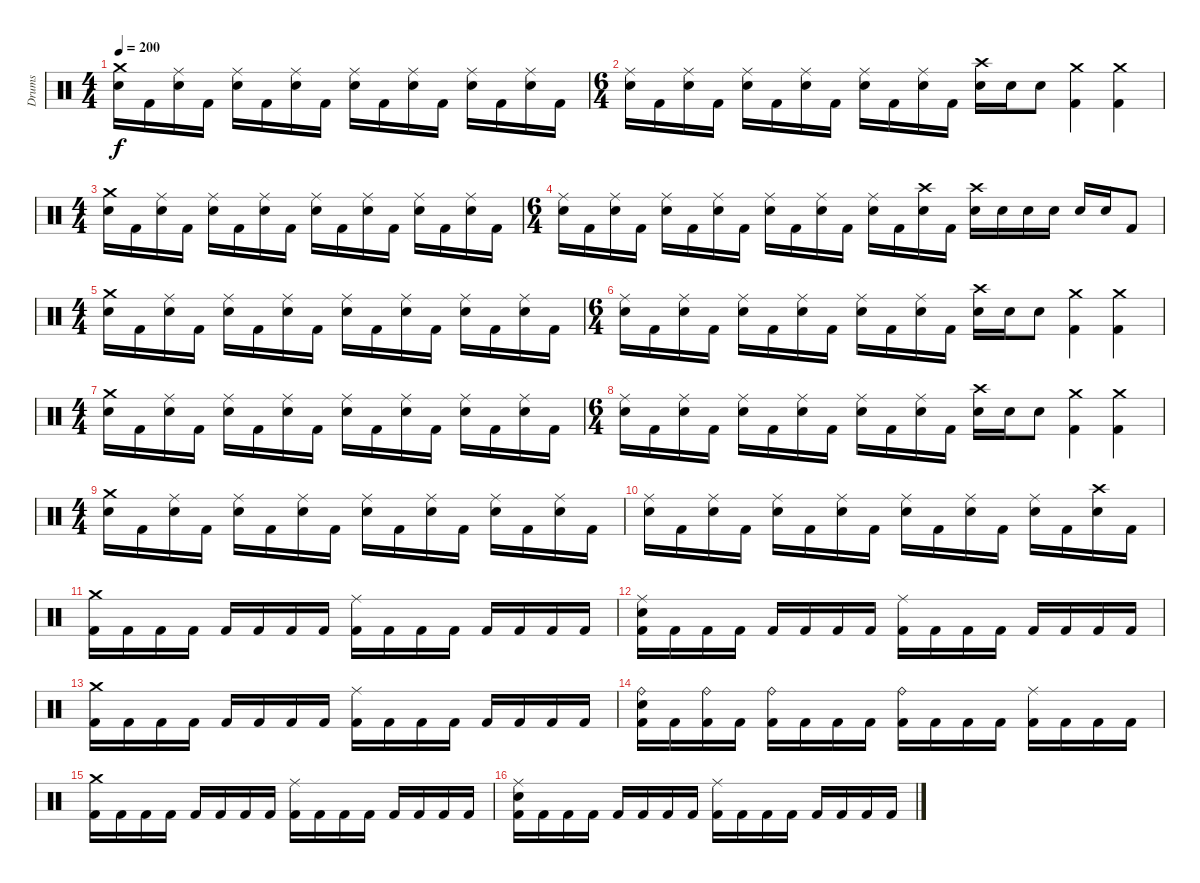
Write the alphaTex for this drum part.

\track ("Drums" "Drums") {instrument percussion}
\staff {score}
\articulation defaults
\ts (4 4)
\tempo 200
\clef neutral
\ks c
("Crash medium (hit)" "Electric Snare (hit)").16{dy f} "Kick (hit) 2".16 ("Ride (middle)" "Electric Snare (hit)").16 "Kick (hit) 2".16 ("Ride (middle)" "Electric Snare (hit)").16 "Kick (hit) 2".16 ("Ride (middle)" "Electric Snare (hit)").16 "Kick (hit) 2".16 ("Ride (middle)" "Electric Snare (hit)").16 "Kick (hit) 2".16 ("Ride (middle)" "Electric Snare (hit)").16 "Kick (hit) 2".16 ("Ride (middle)" "Electric Snare (hit)").16 "Kick (hit) 2".16 ("Ride (middle)" "Electric Snare (hit)").16 "Kick (hit) 2".16 |
\ts (6 4)
("Ride (middle)" "Electric Snare (hit)").16 "Kick (hit) 2".16 ("Ride (middle)" "Electric Snare (hit)").16 "Kick (hit) 2".16 ("Ride (middle)" "Electric Snare (hit)").16 "Kick (hit) 2".16 ("Ride (middle)" "Electric Snare (hit)").16 "Kick (hit) 2".16 ("Ride (middle)" "Electric Snare (hit)").16 "Kick (hit) 2".16 ("Ride (middle)" "Electric Snare (hit)").16 "Kick (hit) 2".16 ("Crash high (hit)" "Electric Snare (hit)").16 "Electric Snare (hit)".16 "Electric Snare (hit)".8 ("Crash medium (hit)" "Kick (hit) 2").4 ("Crash medium (hit)" "Kick (hit) 2").4 |
\ts (4 4)
("Crash medium (hit)" "Electric Snare (hit)").16 "Kick (hit) 2".16 ("Ride (middle)" "Electric Snare (hit)").16 "Kick (hit) 2".16 ("Ride (middle)" "Electric Snare (hit)").16 "Kick (hit) 2".16 ("Ride (middle)" "Electric Snare (hit)").16 "Kick (hit) 2".16 ("Ride (middle)" "Electric Snare (hit)").16 "Kick (hit) 2".16 ("Ride (middle)" "Electric Snare (hit)").16 "Kick (hit) 2".16 ("Ride (middle)" "Electric Snare (hit)").16 "Kick (hit) 2".16 ("Ride (middle)" "Electric Snare (hit)").16 "Kick (hit) 2".16 |
\ts (6 4)
("Ride (middle)" "Electric Snare (hit)").16 "Kick (hit) 2".16 ("Ride (middle)" "Electric Snare (hit)").16 "Kick (hit) 2".16 ("Ride (middle)" "Electric Snare (hit)").16 "Kick (hit) 2".16 ("Ride (middle)" "Electric Snare (hit)").16 "Kick (hit) 2".16 ("Ride (middle)" "Electric Snare (hit)").16 "Kick (hit) 2".16 ("Ride (middle)" "Electric Snare (hit)").16 "Kick (hit) 2".16 ("Ride (middle)" "Electric Snare (hit)").16 "Kick (hit) 2".16 ("Crash high (hit)" "Electric Snare (hit)").16 "Kick (hit) 2".16 ("Crash high (hit)" "Electric Snare (hit)").16 "Electric Snare (hit)".16 "Electric Snare (hit)".16 "Electric Snare (hit)".16 "Electric Snare (hit)".16 "Electric Snare (hit)".16 "Kick (hit) 2".8 |
\ts (4 4)
("Crash medium (hit)" "Electric Snare (hit)").16 "Kick (hit) 2".16 ("Ride (middle)" "Electric Snare (hit)").16 "Kick (hit) 2".16 ("Ride (middle)" "Electric Snare (hit)").16 "Kick (hit) 2".16 ("Ride (middle)" "Electric Snare (hit)").16 "Kick (hit) 2".16 ("Ride (middle)" "Electric Snare (hit)").16 "Kick (hit) 2".16 ("Ride (middle)" "Electric Snare (hit)").16 "Kick (hit) 2".16 ("Ride (middle)" "Electric Snare (hit)").16 "Kick (hit) 2".16 ("Ride (middle)" "Electric Snare (hit)").16 "Kick (hit) 2".16 |
\ts (6 4)
("Ride (middle)" "Electric Snare (hit)").16 "Kick (hit) 2".16 ("Ride (middle)" "Electric Snare (hit)").16 "Kick (hit) 2".16 ("Ride (middle)" "Electric Snare (hit)").16 "Kick (hit) 2".16 ("Ride (middle)" "Electric Snare (hit)").16 "Kick (hit) 2".16 ("Ride (middle)" "Electric Snare (hit)").16 "Kick (hit) 2".16 ("Ride (middle)" "Electric Snare (hit)").16 "Kick (hit) 2".16 ("Crash high (hit)" "Electric Snare (hit)").16 "Electric Snare (hit)".16 "Electric Snare (hit)".8 ("Crash medium (hit)" "Kick (hit) 2").4 ("Crash medium (hit)" "Kick (hit) 2").4 |
\ts (4 4)
("Crash medium (hit)" "Electric Snare (hit)").16 "Kick (hit) 2".16 ("Ride (middle)" "Electric Snare (hit)").16 "Kick (hit) 2".16 ("Ride (middle)" "Electric Snare (hit)").16 "Kick (hit) 2".16 ("Ride (middle)" "Electric Snare (hit)").16 "Kick (hit) 2".16 ("Ride (middle)" "Electric Snare (hit)").16 "Kick (hit) 2".16 ("Ride (middle)" "Electric Snare (hit)").16 "Kick (hit) 2".16 ("Ride (middle)" "Electric Snare (hit)").16 "Kick (hit) 2".16 ("Ride (middle)" "Electric Snare (hit)").16 "Kick (hit) 2".16 |
\ts (6 4)
("Ride (middle)" "Electric Snare (hit)").16 "Kick (hit) 2".16 ("Ride (middle)" "Electric Snare (hit)").16 "Kick (hit) 2".16 ("Ride (middle)" "Electric Snare (hit)").16 "Kick (hit) 2".16 ("Ride (middle)" "Electric Snare (hit)").16 "Kick (hit) 2".16 ("Ride (middle)" "Electric Snare (hit)").16 "Kick (hit) 2".16 ("Ride (middle)" "Electric Snare (hit)").16 "Kick (hit) 2".16 ("Crash high (hit)" "Electric Snare (hit)").16 "Electric Snare (hit)".16 "Electric Snare (hit)".8 ("Crash medium (hit)" "Kick (hit) 2").4 ("Crash medium (hit)" "Kick (hit) 2").4 |
\ts (4 4)
("Crash medium (hit)" "Electric Snare (hit)").16 "Kick (hit) 2".16 ("Ride (middle)" "Electric Snare (hit)").16 "Kick (hit) 2".16 ("Ride (middle)" "Electric Snare (hit)").16 "Kick (hit) 2".16 ("Ride (middle)" "Electric Snare (hit)").16 "Kick (hit) 2".16 ("Ride (middle)" "Electric Snare (hit)").16 "Kick (hit) 2".16 ("Ride (middle)" "Electric Snare (hit)").16 "Kick (hit) 2".16 ("Ride (middle)" "Electric Snare (hit)").16 "Kick (hit) 2".16 ("Ride (middle)" "Electric Snare (hit)").16 "Kick (hit) 2".16 |
("Ride (middle)" "Electric Snare (hit)").16 "Kick (hit) 2".16 ("Ride (middle)" "Electric Snare (hit)").16 "Kick (hit) 2".16 ("Ride (middle)" "Electric Snare (hit)").16 "Kick (hit) 2".16 ("Ride (middle)" "Electric Snare (hit)").16 "Kick (hit) 2".16 ("Ride (middle)" "Electric Snare (hit)").16 "Kick (hit) 2".16 ("Ride (middle)" "Electric Snare (hit)").16 "Kick (hit) 2".16 ("Ride (middle)" "Electric Snare (hit)").16 "Kick (hit) 2".16 ("Crash high (hit)" "Electric Snare (hit)").16 "Kick (hit) 2".16 |
\section ("" "")
("Crash medium (hit)" "Kick (hit) 2").16 "Kick (hit) 2".16 "Kick (hit) 2".16 "Kick (hit) 2".16 "Kick (hit) 2".16 "Kick (hit) 2".16 "Kick (hit) 2".16 "Kick (hit) 2".16 ("Ride (middle)" "Kick (hit) 2").16 "Kick (hit) 2".16 "Kick (hit) 2".16 "Kick (hit) 2".16 "Kick (hit) 2".16 "Kick (hit) 2".16 "Kick (hit) 2".16 "Kick (hit) 2".16 |
("Ride (middle)" "Electric Snare (hit)" "Kick (hit) 2").16 "Kick (hit) 2".16 "Kick (hit) 2".16 "Kick (hit) 2".16 "Kick (hit) 2".16 "Kick (hit) 2".16 "Kick (hit) 2".16 "Kick (hit) 2".16 ("Ride (middle)" "Kick (hit) 2").16 "Kick (hit) 2".16 "Kick (hit) 2".16 "Kick (hit) 2".16 "Kick (hit) 2".16 "Kick (hit) 2".16 "Kick (hit) 2".16 "Kick (hit) 2".16 |
("Crash medium (hit)" "Kick (hit) 2").16 "Kick (hit) 2".16 "Kick (hit) 2".16 "Kick (hit) 2".16 "Kick (hit) 2".16 "Kick (hit) 2".16 "Kick (hit) 2".16 "Kick (hit) 2".16 ("Ride (middle)" "Kick (hit) 2").16 "Kick (hit) 2".16 "Kick (hit) 2".16 "Kick (hit) 2".16 "Kick (hit) 2".16 "Kick (hit) 2".16 "Kick (hit) 2".16 "Kick (hit) 2".16 |
("Ride (bell)" "Electric Snare (hit)" "Kick (hit) 2").16 "Kick (hit) 2".16 ("Ride (bell)" "Kick (hit) 2").16 "Kick (hit) 2".16 ("Ride (bell)" "Kick (hit) 2").16 "Kick (hit) 2".16 "Kick (hit) 2".16 "Kick (hit) 2".16 ("Ride (bell)" "Kick (hit) 2").16 "Kick (hit) 2".16 "Kick (hit) 2".16 "Kick (hit) 2".16 ("Ride (middle)" "Kick (hit) 2").16 "Kick (hit) 2".16 "Kick (hit) 2".16 "Kick (hit) 2".16 |
("Crash medium (hit)" "Kick (hit) 2").16 "Kick (hit) 2".16 "Kick (hit) 2".16 "Kick (hit) 2".16 "Kick (hit) 2".16 "Kick (hit) 2".16 "Kick (hit) 2".16 "Kick (hit) 2".16 ("Ride (middle)" "Kick (hit) 2").16 "Kick (hit) 2".16 "Kick (hit) 2".16 "Kick (hit) 2".16 "Kick (hit) 2".16 "Kick (hit) 2".16 "Kick (hit) 2".16 "Kick (hit) 2".16 |
("Ride (middle)" "Electric Snare (hit)" "Kick (hit) 2").16 "Kick (hit) 2".16 "Kick (hit) 2".16 "Kick (hit) 2".16 "Kick (hit) 2".16 "Kick (hit) 2".16 "Kick (hit) 2".16 "Kick (hit) 2".16 ("Ride (middle)" "Kick (hit) 2").16 "Kick (hit) 2".16 "Kick (hit) 2".16 "Kick (hit) 2".16 "Kick (hit) 2".16 "Kick (hit) 2".16 "Kick (hit) 2".16 "Kick (hit) 2".16
